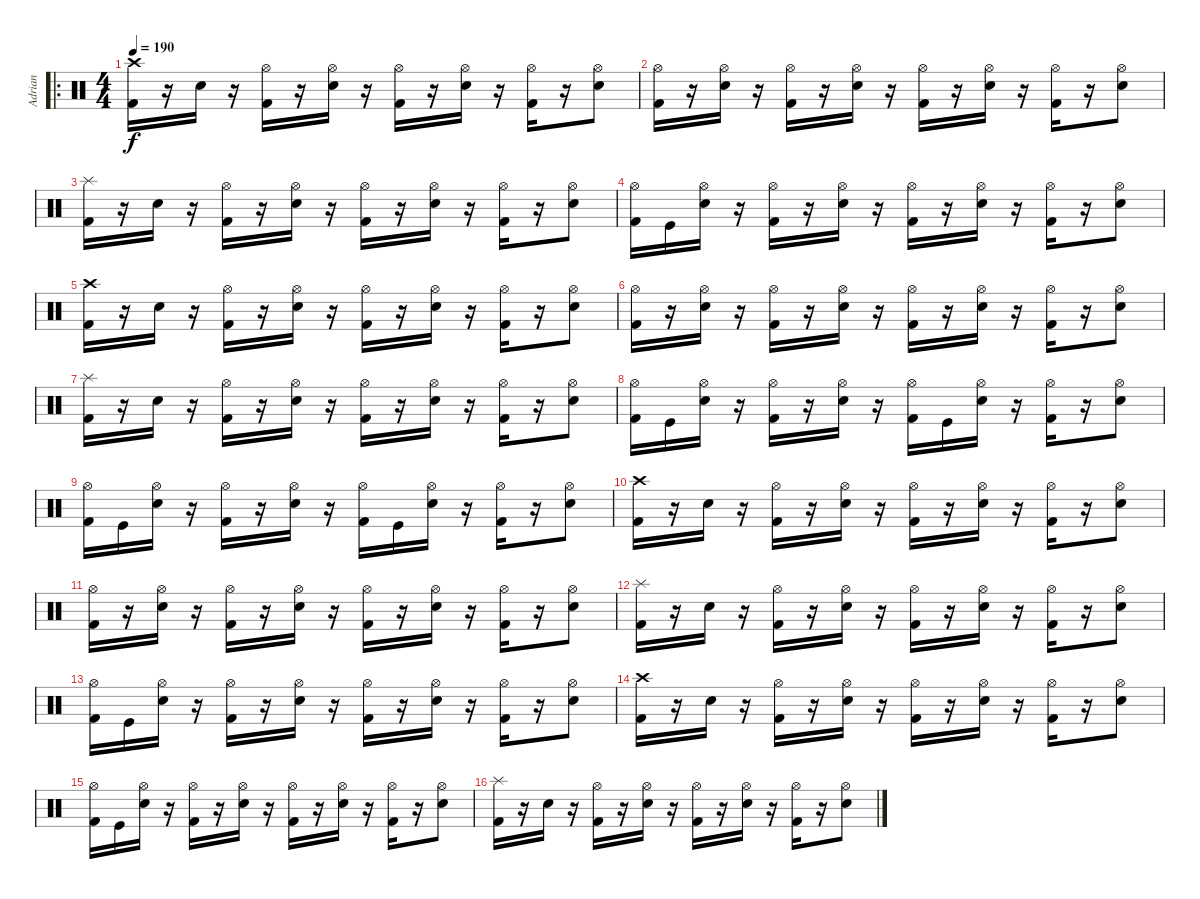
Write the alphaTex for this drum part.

\track ("Adrian" "Adrian") {instrument percussion}
\staff {score}
\articulation defaults
\ro
\ts (4 4)
\tempo 190
\clef neutral
\ks c
("Crash high (hit)" "Kick (hit) 2").16{dy f} r.16 "Electric Snare (hit)".16 r.16 ("Hi-Hat (open)" "Kick (hit) 2").16 r.16 ("Hi-Hat (open)" "Electric Snare (hit)").16 r.16 ("Hi-Hat (open)" "Kick (hit) 2").16 r.16 ("Hi-Hat (open)" "Electric Snare (hit)").16 r.16 ("Hi-Hat (open)" "Kick (hit) 2").16 r.16 ("Hi-Hat (open)" "Electric Snare (hit)").8 |
("Hi-Hat (open)" "Kick (hit) 2").16 r.16 ("Hi-Hat (open)" "Electric Snare (hit)").16 r.16 ("Hi-Hat (open)" "Kick (hit) 2").16 r.16 ("Hi-Hat (open)" "Electric Snare (hit)").16 r.16 ("Hi-Hat (open)" "Kick (hit) 2").16 r.16 ("Hi-Hat (open)" "Electric Snare (hit)").16 r.16 ("Hi-Hat (open)" "Kick (hit) 2").16 r.16 ("Hi-Hat (open)" "Electric Snare (hit)").8 |
("Splash (hit)" "Kick (hit) 2").16 r.16 "Electric Snare (hit)".16 r.16 ("Hi-Hat (open)" "Kick (hit) 2").16 r.16 ("Hi-Hat (open)" "Electric Snare (hit)").16 r.16 ("Hi-Hat (open)" "Kick (hit) 2").16 r.16 ("Hi-Hat (open)" "Electric Snare (hit)").16 r.16 ("Hi-Hat (open)" "Kick (hit) 2").16 r.16 ("Hi-Hat (open)" "Electric Snare (hit)").8 |
("Hi-Hat (open)" "Kick (hit) 2").16 "Kick (hit)".16 ("Hi-Hat (open)" "Electric Snare (hit)").16 r.16 ("Hi-Hat (open)" "Kick (hit) 2").16 r.16 ("Hi-Hat (open)" "Electric Snare (hit)").16 r.16 ("Hi-Hat (open)" "Kick (hit) 2").16 r.16 ("Hi-Hat (open)" "Electric Snare (hit)").16 r.16 ("Hi-Hat (open)" "Kick (hit) 2").16 r.16 ("Hi-Hat (open)" "Electric Snare (hit)").8 |
("Crash high (hit)" "Kick (hit) 2").16 r.16 "Electric Snare (hit)".16 r.16 ("Hi-Hat (open)" "Kick (hit) 2").16 r.16 ("Hi-Hat (open)" "Electric Snare (hit)").16 r.16 ("Hi-Hat (open)" "Kick (hit) 2").16 r.16 ("Hi-Hat (open)" "Electric Snare (hit)").16 r.16 ("Hi-Hat (open)" "Kick (hit) 2").16 r.16 ("Hi-Hat (open)" "Electric Snare (hit)").8 |
("Hi-Hat (open)" "Kick (hit) 2").16 r.16 ("Hi-Hat (open)" "Electric Snare (hit)").16 r.16 ("Hi-Hat (open)" "Kick (hit) 2").16 r.16 ("Hi-Hat (open)" "Electric Snare (hit)").16 r.16 ("Hi-Hat (open)" "Kick (hit) 2").16 r.16 ("Hi-Hat (open)" "Electric Snare (hit)").16 r.16 ("Hi-Hat (open)" "Kick (hit) 2").16 r.16 ("Hi-Hat (open)" "Electric Snare (hit)").8 |
("Splash (hit)" "Kick (hit) 2").16 r.16 "Electric Snare (hit)".16 r.16 ("Hi-Hat (open)" "Kick (hit) 2").16 r.16 ("Hi-Hat (open)" "Electric Snare (hit)").16 r.16 ("Hi-Hat (open)" "Kick (hit) 2").16 r.16 ("Hi-Hat (open)" "Electric Snare (hit)").16 r.16 ("Hi-Hat (open)" "Kick (hit) 2").16 r.16 ("Hi-Hat (open)" "Electric Snare (hit)").8 |
("Hi-Hat (open)" "Kick (hit) 2").16 "Kick (hit)".16 ("Hi-Hat (open)" "Electric Snare (hit)").16 r.16 ("Hi-Hat (open)" "Kick (hit) 2").16 r.16 ("Hi-Hat (open)" "Electric Snare (hit)").16 r.16 ("Hi-Hat (open)" "Kick (hit) 2").16 "Kick (hit)".16 ("Hi-Hat (open)" "Electric Snare (hit)").16 r.16 ("Hi-Hat (open)" "Kick (hit) 2").16 r.16 ("Hi-Hat (open)" "Electric Snare (hit)").8 |
("Hi-Hat (open)" "Kick (hit) 2").16 "Kick (hit)".16 ("Hi-Hat (open)" "Electric Snare (hit)").16 r.16 ("Hi-Hat (open)" "Kick (hit) 2").16 r.16 ("Hi-Hat (open)" "Electric Snare (hit)").16 r.16 ("Hi-Hat (open)" "Kick (hit) 2").16 "Kick (hit)".16 ("Hi-Hat (open)" "Electric Snare (hit)").16 r.16 ("Hi-Hat (open)" "Kick (hit) 2").16 r.16 ("Hi-Hat (open)" "Electric Snare (hit)").8 |
("Crash high (hit)" "Kick (hit) 2").16 r.16 "Electric Snare (hit)".16 r.16 ("Hi-Hat (open)" "Kick (hit) 2").16 r.16 ("Hi-Hat (open)" "Electric Snare (hit)").16 r.16 ("Hi-Hat (open)" "Kick (hit) 2").16 r.16 ("Hi-Hat (open)" "Electric Snare (hit)").16 r.16 ("Hi-Hat (open)" "Kick (hit) 2").16 r.16 ("Hi-Hat (open)" "Electric Snare (hit)").8 |
("Hi-Hat (open)" "Kick (hit) 2").16 r.16 ("Hi-Hat (open)" "Electric Snare (hit)").16 r.16 ("Hi-Hat (open)" "Kick (hit) 2").16 r.16 ("Hi-Hat (open)" "Electric Snare (hit)").16 r.16 ("Hi-Hat (open)" "Kick (hit) 2").16 r.16 ("Hi-Hat (open)" "Electric Snare (hit)").16 r.16 ("Hi-Hat (open)" "Kick (hit) 2").16 r.16 ("Hi-Hat (open)" "Electric Snare (hit)").8 |
("Splash (hit)" "Kick (hit) 2").16 r.16 "Electric Snare (hit)".16 r.16 ("Hi-Hat (open)" "Kick (hit) 2").16 r.16 ("Hi-Hat (open)" "Electric Snare (hit)").16 r.16 ("Hi-Hat (open)" "Kick (hit) 2").16 r.16 ("Hi-Hat (open)" "Electric Snare (hit)").16 r.16 ("Hi-Hat (open)" "Kick (hit) 2").16 r.16 ("Hi-Hat (open)" "Electric Snare (hit)").8 |
("Hi-Hat (open)" "Kick (hit) 2").16 "Kick (hit)".16 ("Hi-Hat (open)" "Electric Snare (hit)").16 r.16 ("Hi-Hat (open)" "Kick (hit) 2").16 r.16 ("Hi-Hat (open)" "Electric Snare (hit)").16 r.16 ("Hi-Hat (open)" "Kick (hit) 2").16 r.16 ("Hi-Hat (open)" "Electric Snare (hit)").16 r.16 ("Hi-Hat (open)" "Kick (hit) 2").16 r.16 ("Hi-Hat (open)" "Electric Snare (hit)").8 |
("Crash high (hit)" "Kick (hit) 2").16 r.16 "Electric Snare (hit)".16 r.16 ("Hi-Hat (open)" "Kick (hit) 2").16 r.16 ("Hi-Hat (open)" "Electric Snare (hit)").16 r.16 ("Hi-Hat (open)" "Kick (hit) 2").16 r.16 ("Hi-Hat (open)" "Electric Snare (hit)").16 r.16 ("Hi-Hat (open)" "Kick (hit) 2").16 r.16 ("Hi-Hat (open)" "Electric Snare (hit)").8 |
("Hi-Hat (open)" "Kick (hit) 2").16 "Kick (hit)".16 ("Hi-Hat (open)" "Electric Snare (hit)").16 r.16 ("Hi-Hat (open)" "Kick (hit) 2").16 r.16 ("Hi-Hat (open)" "Electric Snare (hit)").16 r.16 ("Hi-Hat (open)" "Kick (hit) 2").16 r.16 ("Hi-Hat (open)" "Electric Snare (hit)").16 r.16 ("Hi-Hat (open)" "Kick (hit) 2").16 r.16 ("Hi-Hat (open)" "Electric Snare (hit)").8 |
("Splash (hit)" "Kick (hit) 2").16 r.16 "Electric Snare (hit)".16 r.16 ("Hi-Hat (open)" "Kick (hit) 2").16 r.16 ("Hi-Hat (open)" "Electric Snare (hit)").16 r.16 ("Hi-Hat (open)" "Kick (hit) 2").16 r.16 ("Hi-Hat (open)" "Electric Snare (hit)").16 r.16 ("Hi-Hat (open)" "Kick (hit) 2").16 r.16 ("Hi-Hat (open)" "Electric Snare (hit)").8
